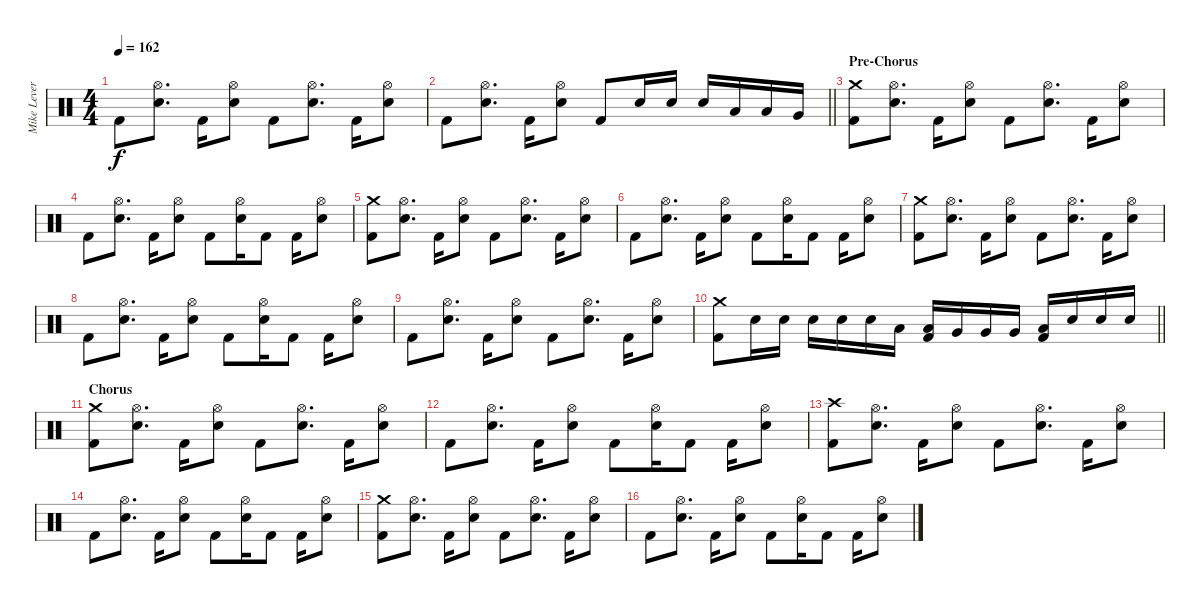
\track ("Mike Leverence - Drums" "Mike Lever") {instrument percussion}
\staff {score}
\articulation defaults
\ts (4 4)
\tempo 162
\clef neutral
\ks c "Kick (hit) 2".8{dy f}
("Hi-Hat (open)" "Electric Snare (hit)").8{d} "Kick (hit) 2".16 ("Hi-Hat (open)" "Electric Snare (hit)").8 "Kick (hit) 2".8 ("Hi-Hat (open)" "Electric Snare (hit)").8{d} "Kick (hit) 2".16 ("Hi-Hat (open)" "Electric Snare (hit)").8 |
\barLineRight lightlight "Kick (hit) 2".8
("Hi-Hat (open)" "Electric Snare (hit)").8{d} "Kick (hit) 2".16 ("Hi-Hat (open)" "Electric Snare (hit)").8 "Kick (hit) 2".8 "Electric Snare (hit)".16 "Electric Snare (hit)".16 "Electric Snare (hit)".16 "Low Tom (hit)".16 "Low Tom (hit)".16 "Very Low Tom (hit)".16 |
\section ("" "Pre-Chorus")
("Crash medium (hit)" "Kick (hit) 2").8 ("Hi-Hat (open)" "Electric Snare (hit)").8{d} "Kick (hit) 2".16 ("Hi-Hat (open)" "Electric Snare (hit)").8 "Kick (hit) 2".8 ("Hi-Hat (open)" "Electric Snare (hit)").8{d} "Kick (hit) 2".16 ("Hi-Hat (open)" "Electric Snare (hit)").8 |
"Kick (hit) 2".8 ("Hi-Hat (open)" "Electric Snare (hit)").8{d} "Kick (hit) 2".16 ("Hi-Hat (open)" "Electric Snare (hit)").8 "Kick (hit) 2".8 ("Hi-Hat (open)" "Electric Snare (hit)").16 "Kick (hit) 2".8 "Kick (hit) 2".16 ("Hi-Hat (open)" "Electric Snare (hit)").8 |
("Crash medium (hit)" "Kick (hit) 2").8 ("Hi-Hat (open)" "Electric Snare (hit)").8{d} "Kick (hit) 2".16 ("Hi-Hat (open)" "Electric Snare (hit)").8 "Kick (hit) 2".8 ("Hi-Hat (open)" "Electric Snare (hit)").8{d} "Kick (hit) 2".16 ("Hi-Hat (open)" "Electric Snare (hit)").8 |
"Kick (hit) 2".8 ("Hi-Hat (open)" "Electric Snare (hit)").8{d} "Kick (hit) 2".16 ("Hi-Hat (open)" "Electric Snare (hit)").8 "Kick (hit) 2".8 ("Hi-Hat (open)" "Electric Snare (hit)").16 "Kick (hit) 2".8 "Kick (hit) 2".16 ("Hi-Hat (open)" "Electric Snare (hit)").8 |
("Crash medium (hit)" "Kick (hit) 2").8 ("Hi-Hat (open)" "Electric Snare (hit)").8{d} "Kick (hit) 2".16 ("Hi-Hat (open)" "Electric Snare (hit)").8 "Kick (hit) 2".8 ("Hi-Hat (open)" "Electric Snare (hit)").8{d} "Kick (hit) 2".16 ("Hi-Hat (open)" "Electric Snare (hit)").8 |
"Kick (hit) 2".8 ("Hi-Hat (open)" "Electric Snare (hit)").8{d} "Kick (hit) 2".16 ("Hi-Hat (open)" "Electric Snare (hit)").8 "Kick (hit) 2".8 ("Hi-Hat (open)" "Electric Snare (hit)").16 "Kick (hit) 2".8 "Kick (hit) 2".16 ("Hi-Hat (open)" "Electric Snare (hit)").8 |
"Kick (hit) 2".8 ("Hi-Hat (open)" "Electric Snare (hit)").8{d} "Kick (hit) 2".16 ("Hi-Hat (open)" "Electric Snare (hit)").8 "Kick (hit) 2".8 ("Hi-Hat (open)" "Electric Snare (hit)").8{d} "Kick (hit) 2".16 ("Hi-Hat (open)" "Electric Snare (hit)").8 |
\barLineRight lightlight
("Crash medium (hit)" "Kick (hit) 2").8 "Electric Snare (hit)".16 "Electric Snare (hit)".16 "Electric Snare (hit)".16 "Electric Snare (hit)".16 "Electric Snare (hit)".16 "Low Tom (hit)".16 ("Low Tom (hit)" "Kick (hit) 2").16 "Very Low Tom (hit)".16 "Very Low Tom (hit)".16 "Very Low Tom (hit)".16 ("Low Floor Tom (hit)" "Kick (hit) 2").16 "Electric Snare (hit)".16 "Electric Snare (hit)".16 "Electric Snare (hit)".16 |
\section ("" "Chorus")
("Crash medium (hit)" "Kick (hit) 2").8 ("Hi-Hat (open)" "Electric Snare (hit)").8{d} "Kick (hit) 2".16 ("Hi-Hat (open)" "Electric Snare (hit)").8 "Kick (hit) 2".8 ("Hi-Hat (open)" "Electric Snare (hit)").8{d} "Kick (hit) 2".16 ("Hi-Hat (open)" "Electric Snare (hit)").8 |
"Kick (hit) 2".8 ("Hi-Hat (open)" "Electric Snare (hit)").8{d} "Kick (hit) 2".16 ("Hi-Hat (open)" "Electric Snare (hit)").8 "Kick (hit) 2".8 ("Hi-Hat (open)" "Electric Snare (hit)").16 "Kick (hit) 2".8 "Kick (hit) 2".16 ("Hi-Hat (open)" "Electric Snare (hit)").8 |
("Crash high (hit)" "Kick (hit) 2").8 ("Hi-Hat (open)" "Electric Snare (hit)").8{d} "Kick (hit) 2".16 ("Hi-Hat (open)" "Electric Snare (hit)").8 "Kick (hit) 2".8 ("Hi-Hat (open)" "Electric Snare (hit)").8{d} "Kick (hit) 2".16 ("Hi-Hat (open)" "Electric Snare (hit)").8 |
"Kick (hit) 2".8 ("Hi-Hat (open)" "Electric Snare (hit)").8{d} "Kick (hit) 2".16 ("Hi-Hat (open)" "Electric Snare (hit)").8 "Kick (hit) 2".8 ("Hi-Hat (open)" "Electric Snare (hit)").16 "Kick (hit) 2".8 "Kick (hit) 2".16 ("Hi-Hat (open)" "Electric Snare (hit)").8 |
("Crash medium (hit)" "Kick (hit) 2").8 ("Hi-Hat (open)" "Electric Snare (hit)").8{d} "Kick (hit) 2".16 ("Hi-Hat (open)" "Electric Snare (hit)").8 "Kick (hit) 2".8 ("Hi-Hat (open)" "Electric Snare (hit)").8{d} "Kick (hit) 2".16 ("Hi-Hat (open)" "Electric Snare (hit)").8 |
"Kick (hit) 2".8 ("Hi-Hat (open)" "Electric Snare (hit)").8{d} "Kick (hit) 2".16 ("Hi-Hat (open)" "Electric Snare (hit)").8 "Kick (hit) 2".8 ("Hi-Hat (open)" "Electric Snare (hit)").16 "Kick (hit) 2".8 "Kick (hit) 2".16 ("Hi-Hat (open)" "Electric Snare (hit)").8
